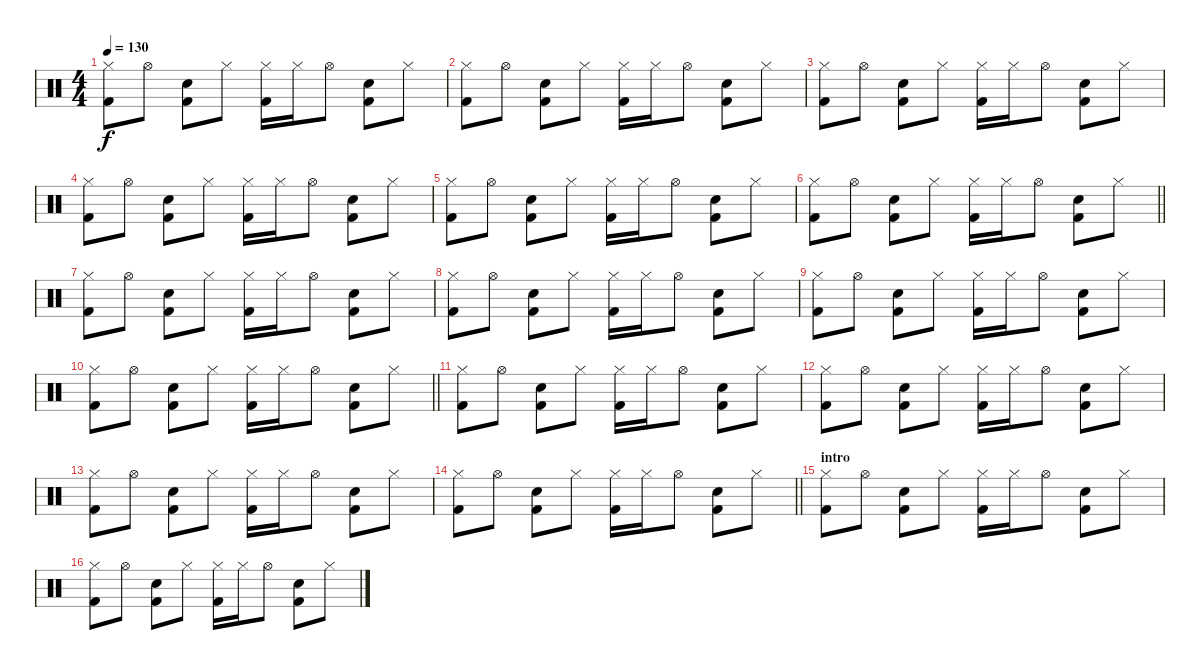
\track "" {instrument percussion}
\staff {score}
\articulation defaults
\ts (4 4)
\tempo 130
\clef neutral
\ks c
("Hi-Hat (closed)" "Kick (hit) 2").8{dy f} "Hi-Hat (open)".8 ("Electric Snare (hit)" "Kick (hit) 2").8 "Hi-Hat (closed)".8 ("Hi-Hat (closed)" "Kick (hit) 2").16 "Hi-Hat (closed)".16 "Hi-Hat (open)".8 ("Electric Snare (hit)" "Kick (hit) 2").8 "Hi-Hat (closed)".8 |
("Hi-Hat (closed)" "Kick (hit) 2").8 "Hi-Hat (open)".8 ("Electric Snare (hit)" "Kick (hit) 2").8 "Hi-Hat (closed)".8 ("Hi-Hat (closed)" "Kick (hit) 2").16 "Hi-Hat (closed)".16 "Hi-Hat (open)".8 ("Electric Snare (hit)" "Kick (hit) 2").8 "Hi-Hat (closed)".8 |
("Hi-Hat (closed)" "Kick (hit) 2").8 "Hi-Hat (open)".8 ("Electric Snare (hit)" "Kick (hit) 2").8 "Hi-Hat (closed)".8 ("Hi-Hat (closed)" "Kick (hit) 2").16 "Hi-Hat (closed)".16 "Hi-Hat (open)".8 ("Electric Snare (hit)" "Kick (hit) 2").8 "Hi-Hat (closed)".8 |
("Hi-Hat (closed)" "Kick (hit) 2").8 "Hi-Hat (open)".8 ("Electric Snare (hit)" "Kick (hit) 2").8 "Hi-Hat (closed)".8 ("Hi-Hat (closed)" "Kick (hit) 2").16 "Hi-Hat (closed)".16 "Hi-Hat (open)".8 ("Electric Snare (hit)" "Kick (hit) 2").8 "Hi-Hat (closed)".8 |
("Hi-Hat (closed)" "Kick (hit) 2").8 "Hi-Hat (open)".8 ("Electric Snare (hit)" "Kick (hit) 2").8 "Hi-Hat (closed)".8 ("Hi-Hat (closed)" "Kick (hit) 2").16 "Hi-Hat (closed)".16 "Hi-Hat (open)".8 ("Electric Snare (hit)" "Kick (hit) 2").8 "Hi-Hat (closed)".8 |
\barLineRight lightlight
("Hi-Hat (closed)" "Kick (hit) 2").8 "Hi-Hat (open)".8 ("Electric Snare (hit)" "Kick (hit) 2").8 "Hi-Hat (closed)".8 ("Hi-Hat (closed)" "Kick (hit) 2").16 "Hi-Hat (closed)".16 "Hi-Hat (open)".8 ("Electric Snare (hit)" "Kick (hit) 2").8 "Hi-Hat (closed)".8 |
\section ("" "")
("Hi-Hat (closed)" "Kick (hit) 2").8 "Hi-Hat (open)".8 ("Electric Snare (hit)" "Kick (hit) 2").8 "Hi-Hat (closed)".8 ("Hi-Hat (closed)" "Kick (hit) 2").16 "Hi-Hat (closed)".16 "Hi-Hat (open)".8 ("Electric Snare (hit)" "Kick (hit) 2").8 "Hi-Hat (closed)".8 |
("Hi-Hat (closed)" "Kick (hit) 2").8 "Hi-Hat (open)".8 ("Electric Snare (hit)" "Kick (hit) 2").8 "Hi-Hat (closed)".8 ("Hi-Hat (closed)" "Kick (hit) 2").16 "Hi-Hat (closed)".16 "Hi-Hat (open)".8 ("Electric Snare (hit)" "Kick (hit) 2").8 "Hi-Hat (closed)".8 |
("Hi-Hat (closed)" "Kick (hit) 2").8 "Hi-Hat (open)".8 ("Electric Snare (hit)" "Kick (hit) 2").8 "Hi-Hat (closed)".8 ("Hi-Hat (closed)" "Kick (hit) 2").16 "Hi-Hat (closed)".16 "Hi-Hat (open)".8 ("Electric Snare (hit)" "Kick (hit) 2").8 "Hi-Hat (closed)".8 |
\barLineRight lightlight
("Hi-Hat (closed)" "Kick (hit) 2").8 "Hi-Hat (open)".8 ("Electric Snare (hit)" "Kick (hit) 2").8 "Hi-Hat (closed)".8 ("Hi-Hat (closed)" "Kick (hit) 2").16 "Hi-Hat (closed)".16 "Hi-Hat (open)".8 ("Electric Snare (hit)" "Kick (hit) 2").8 "Hi-Hat (closed)".8 |
\section ("" "")
("Hi-Hat (closed)" "Kick (hit) 2").8 "Hi-Hat (open)".8 ("Electric Snare (hit)" "Kick (hit) 2").8 "Hi-Hat (closed)".8 ("Hi-Hat (closed)" "Kick (hit) 2").16 "Hi-Hat (closed)".16 "Hi-Hat (open)".8 ("Electric Snare (hit)" "Kick (hit) 2").8 "Hi-Hat (closed)".8 |
("Hi-Hat (closed)" "Kick (hit) 2").8 "Hi-Hat (open)".8 ("Electric Snare (hit)" "Kick (hit) 2").8 "Hi-Hat (closed)".8 ("Hi-Hat (closed)" "Kick (hit) 2").16 "Hi-Hat (closed)".16 "Hi-Hat (open)".8 ("Electric Snare (hit)" "Kick (hit) 2").8 "Hi-Hat (closed)".8 |
("Hi-Hat (closed)" "Kick (hit) 2").8 "Hi-Hat (open)".8 ("Electric Snare (hit)" "Kick (hit) 2").8 "Hi-Hat (closed)".8 ("Hi-Hat (closed)" "Kick (hit) 2").16 "Hi-Hat (closed)".16 "Hi-Hat (open)".8 ("Electric Snare (hit)" "Kick (hit) 2").8 "Hi-Hat (closed)".8 |
\barLineRight lightlight
("Hi-Hat (closed)" "Kick (hit) 2").8 "Hi-Hat (open)".8 ("Electric Snare (hit)" "Kick (hit) 2").8 "Hi-Hat (closed)".8 ("Hi-Hat (closed)" "Kick (hit) 2").16 "Hi-Hat (closed)".16 "Hi-Hat (open)".8 ("Electric Snare (hit)" "Kick (hit) 2").8 "Hi-Hat (closed)".8 |
\section ("" "intro")
("Hi-Hat (closed)" "Kick (hit) 2").8 "Hi-Hat (open)".8 ("Electric Snare (hit)" "Kick (hit) 2").8 "Hi-Hat (closed)".8 ("Hi-Hat (closed)" "Kick (hit) 2").16 "Hi-Hat (closed)".16 "Hi-Hat (open)".8 ("Electric Snare (hit)" "Kick (hit) 2").8 "Hi-Hat (closed)".8 |
("Hi-Hat (closed)" "Kick (hit) 2").8 "Hi-Hat (open)".8 ("Electric Snare (hit)" "Kick (hit) 2").8 "Hi-Hat (closed)".8 ("Hi-Hat (closed)" "Kick (hit) 2").16 "Hi-Hat (closed)".16 "Hi-Hat (open)".8 ("Electric Snare (hit)" "Kick (hit) 2").8 "Hi-Hat (closed)".8
